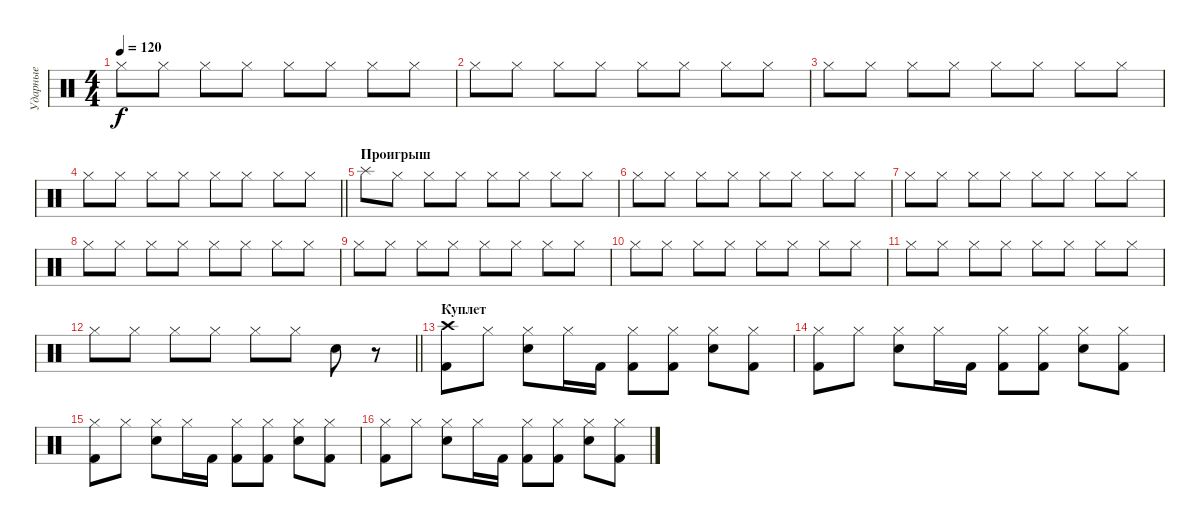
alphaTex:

\track ("Ударные" "Ударные") {instrument percussion}
\staff {score}
\articulation defaults
\ts (4 4)
\tempo 120
\clef neutral
\ks c "Hi-Hat (closed)".8{dy f} "Hi-Hat (closed)".8 "Hi-Hat (closed)".8 "Hi-Hat (closed)".8 "Hi-Hat (closed)".8 "Hi-Hat (closed)".8 "Hi-Hat (closed)".8 "Hi-Hat (closed)".8
|
"Hi-Hat (closed)".8 "Hi-Hat (closed)".8 "Hi-Hat (closed)".8 "Hi-Hat (closed)".8 "Hi-Hat (closed)".8 "Hi-Hat (closed)".8 "Hi-Hat (closed)".8 "Hi-Hat (closed)".8 |
"Hi-Hat (closed)".8 "Hi-Hat (closed)".8 "Hi-Hat (closed)".8 "Hi-Hat (closed)".8 "Hi-Hat (closed)".8 "Hi-Hat (closed)".8 "Hi-Hat (closed)".8 "Hi-Hat (closed)".8 |
\barLineRight lightlight "Hi-Hat (closed)".8 "Hi-Hat (closed)".8 "Hi-Hat (closed)".8 "Hi-Hat (closed)".8 "Hi-Hat (closed)".8 "Hi-Hat (closed)".8 "Hi-Hat (closed)".8 "Hi-Hat (closed)".8
|
\section ("" "Проигрыш")
"Splash (hit)".8 "Hi-Hat (closed)".8 "Hi-Hat (closed)".8 "Hi-Hat (closed)".8 "Hi-Hat (closed)".8 "Hi-Hat (closed)".8 "Hi-Hat (closed)".8 "Hi-Hat (closed)".8 |
"Hi-Hat (closed)".8 "Hi-Hat (closed)".8 "Hi-Hat (closed)".8 "Hi-Hat (closed)".8 "Hi-Hat (closed)".8 "Hi-Hat (closed)".8 "Hi-Hat (closed)".8 "Hi-Hat (closed)".8 |
"Hi-Hat (closed)".8 "Hi-Hat (closed)".8 "Hi-Hat (closed)".8 "Hi-Hat (closed)".8 "Hi-Hat (closed)".8 "Hi-Hat (closed)".8 "Hi-Hat (closed)".8 "Hi-Hat (closed)".8 |
"Hi-Hat (closed)".8 "Hi-Hat (closed)".8 "Hi-Hat (closed)".8 "Hi-Hat (closed)".8 "Hi-Hat (closed)".8 "Hi-Hat (closed)".8 "Hi-Hat (closed)".8 "Hi-Hat (closed)".8 |
"Hi-Hat (closed)".8 "Hi-Hat (closed)".8 "Hi-Hat (closed)".8 "Hi-Hat (closed)".8 "Hi-Hat (closed)".8 "Hi-Hat (closed)".8 "Hi-Hat (closed)".8 "Hi-Hat (closed)".8 |
"Hi-Hat (closed)".8 "Hi-Hat (closed)".8 "Hi-Hat (closed)".8 "Hi-Hat (closed)".8 "Hi-Hat (closed)".8 "Hi-Hat (closed)".8 "Hi-Hat (closed)".8 "Hi-Hat (closed)".8 |
"Hi-Hat (closed)".8 "Hi-Hat (closed)".8 "Hi-Hat (closed)".8 "Hi-Hat (closed)".8 "Hi-Hat (closed)".8 "Hi-Hat (closed)".8 "Hi-Hat (closed)".8 "Hi-Hat (closed)".8 |
\barLineRight lightlight "Hi-Hat (closed)".8 "Hi-Hat (closed)".8 "Hi-Hat (closed)".8 "Hi-Hat (closed)".8 "Hi-Hat (closed)".8 "Hi-Hat (closed)".8 "Snare (hit) 2".8
r.8 |
\section ("" "Куплет")
("Crash high (hit)" "Kick (hit) 2").8 "Hi-Hat (closed)".8 ("Hi-Hat (closed)" "Snare (hit) 2").8 "Hi-Hat (closed)".16 "Kick (hit) 2".16 ("Hi-Hat (closed)" "Kick (hit) 2").8 ("Hi-Hat (closed)" "Kick (hit) 2").8 ("Hi-Hat (closed)" "Snare (hit) 2").8 ("Hi-Hat (closed)" "Kick (hit) 2").8 |
("Hi-Hat (closed)" "Kick (hit) 2").8 "Hi-Hat (closed)".8 ("Hi-Hat (closed)" "Snare (hit) 2").8 "Hi-Hat (closed)".16 "Kick (hit) 2".16 ("Hi-Hat (closed)" "Kick (hit) 2").8 ("Hi-Hat (closed)" "Kick (hit) 2").8 ("Hi-Hat (closed)" "Snare (hit) 2").8 ("Hi-Hat (closed)" "Kick (hit) 2").8 |
("Hi-Hat (closed)" "Kick (hit) 2").8 "Hi-Hat (closed)".8 ("Hi-Hat (closed)" "Snare (hit) 2").8 "Hi-Hat (closed)".16 "Kick (hit) 2".16 ("Hi-Hat (closed)" "Kick (hit) 2").8 ("Hi-Hat (closed)" "Kick (hit) 2").8 ("Hi-Hat (closed)" "Snare (hit) 2").8 ("Hi-Hat (closed)" "Kick (hit) 2").8 |
("Hi-Hat (closed)" "Kick (hit) 2").8 "Hi-Hat (closed)".8 ("Hi-Hat (closed)" "Snare (hit) 2").8 "Hi-Hat (closed)".16 "Kick (hit) 2".16 ("Hi-Hat (closed)" "Kick (hit) 2").8 ("Hi-Hat (closed)" "Kick (hit) 2").8 ("Hi-Hat (closed)" "Snare (hit) 2").8 ("Hi-Hat (closed)" "Kick (hit) 2").8
